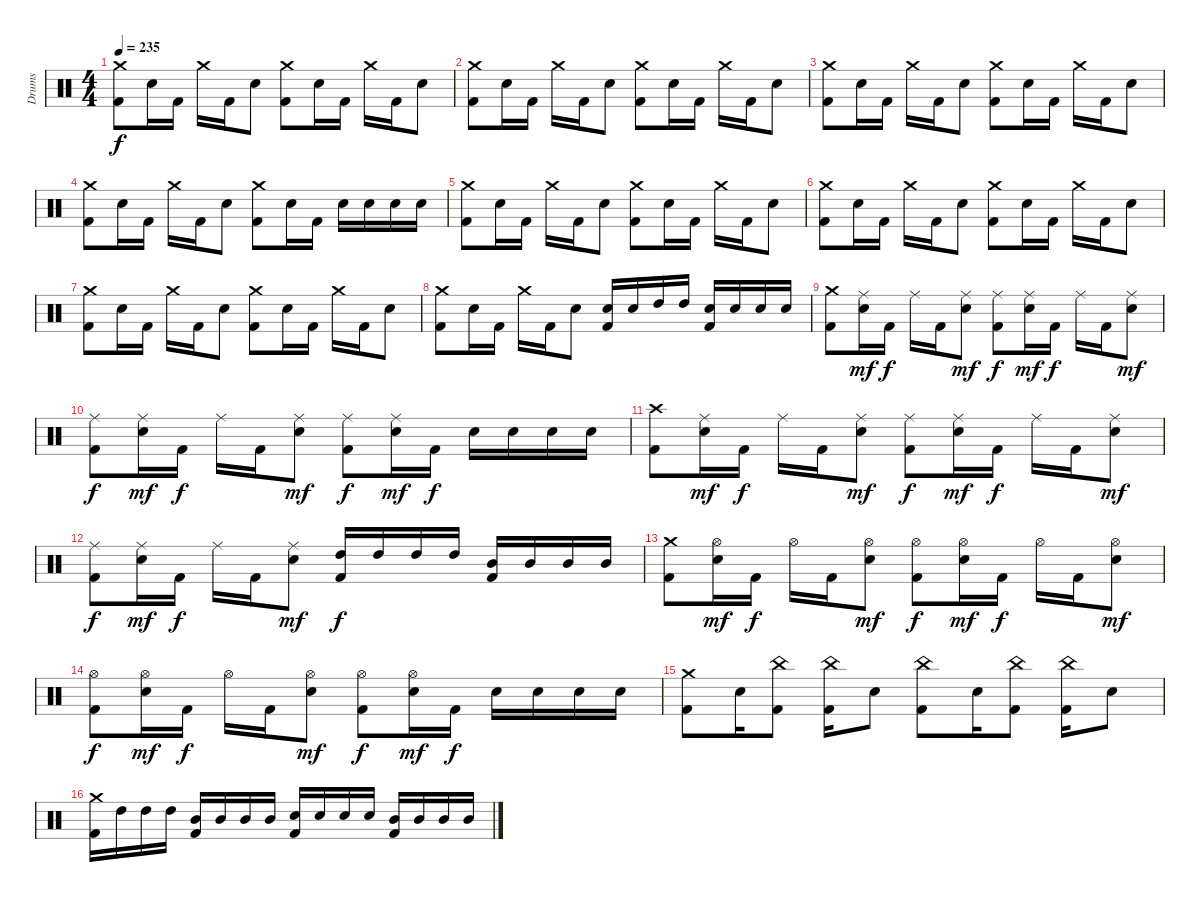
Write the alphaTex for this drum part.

\track ("Drums" "Drums") {instrument percussion}
\staff {score}
\articulation defaults
\ts (4 4)
\tempo 235
\clef neutral
\ks c
("Crash medium (hit)" "Kick (hit) 2").8{dy f} "Electric Snare (hit)".16 "Kick (hit) 2".16 "Crash medium (hit)".16 "Kick (hit) 2".16 "Electric Snare (hit)".8 ("Crash medium (hit)" "Kick (hit) 2").8 "Electric Snare (hit)".16 "Kick (hit) 2".16 "Crash medium (hit)".16 "Kick (hit) 2".16 "Electric Snare (hit)".8 |
("Crash medium (hit)" "Kick (hit) 2").8 "Electric Snare (hit)".16 "Kick (hit) 2".16 "Crash medium (hit)".16 "Kick (hit) 2".16 "Electric Snare (hit)".8 ("Crash medium (hit)" "Kick (hit) 2").8 "Electric Snare (hit)".16 "Kick (hit) 2".16 "Crash medium (hit)".16 "Kick (hit) 2".16 "Electric Snare (hit)".8 |
("Crash medium (hit)" "Kick (hit) 2").8 "Electric Snare (hit)".16 "Kick (hit) 2".16 "Crash medium (hit)".16 "Kick (hit) 2".16 "Electric Snare (hit)".8 ("Crash medium (hit)" "Kick (hit) 2").8 "Electric Snare (hit)".16 "Kick (hit) 2".16 "Crash medium (hit)".16 "Kick (hit) 2".16 "Electric Snare (hit)".8 |
("Crash medium (hit)" "Kick (hit) 2").8 "Electric Snare (hit)".16 "Kick (hit) 2".16 "Crash medium (hit)".16 "Kick (hit) 2".16 "Electric Snare (hit)".8 ("Crash medium (hit)" "Kick (hit) 2").8 "Electric Snare (hit)".16 "Kick (hit) 2".16 "Electric Snare (hit)".16 "Electric Snare (hit)".16 "Electric Snare (hit)".16 "Electric Snare (hit)".16 |
("Crash medium (hit)" "Kick (hit) 2").8 "Electric Snare (hit)".16 "Kick (hit) 2".16 "Crash medium (hit)".16 "Kick (hit) 2".16 "Electric Snare (hit)".8 ("Crash medium (hit)" "Kick (hit) 2").8 "Electric Snare (hit)".16 "Kick (hit) 2".16 "Crash medium (hit)".16 "Kick (hit) 2".16 "Electric Snare (hit)".8 |
("Crash medium (hit)" "Kick (hit) 2").8 "Electric Snare (hit)".16 "Kick (hit) 2".16 "Crash medium (hit)".16 "Kick (hit) 2".16 "Electric Snare (hit)".8 ("Crash medium (hit)" "Kick (hit) 2").8 "Electric Snare (hit)".16 "Kick (hit) 2".16 "Crash medium (hit)".16 "Kick (hit) 2".16 "Electric Snare (hit)".8 |
("Crash medium (hit)" "Kick (hit) 2").8 "Electric Snare (hit)".16 "Kick (hit) 2".16 "Crash medium (hit)".16 "Kick (hit) 2".16 "Electric Snare (hit)".8 ("Crash medium (hit)" "Kick (hit) 2").8 "Electric Snare (hit)".16 "Kick (hit) 2".16 "Crash medium (hit)".16 "Kick (hit) 2".16 "Electric Snare (hit)".8 |
("Crash medium (hit)" "Kick (hit) 2").8 "Electric Snare (hit)".16 "Kick (hit) 2".16 "Crash medium (hit)".16 "Kick (hit) 2".16 "Electric Snare (hit)".8 ("Electric Snare (hit)" "Kick (hit) 2").16 "Electric Snare (hit)".16 "High Tom (hit)".16 "High Tom (hit)".16 ("Electric Snare (hit)" "Kick (hit) 2").16 "Electric Snare (hit)".16 "Electric Snare (hit)".16 "Electric Snare (hit)".16 |
("Crash medium (hit)" "Kick (hit) 2").8 ("Ride (middle)" "Electric Snare (hit)").16{dy mf} "Kick (hit) 2".16{dy f} "Ride (middle)".16 "Kick (hit) 2".16 ("Ride (middle)" "Electric Snare (hit)").8{dy mf} ("Ride (middle)" "Kick (hit) 2").8{dy f} ("Ride (middle)" "Electric Snare (hit)").16{dy mf} "Kick (hit) 2".16{dy f} "Ride (middle)".16 "Kick (hit) 2".16 ("Ride (middle)" "Electric Snare (hit)").8{dy mf} |
("Ride (middle)" "Kick (hit) 2").8{dy f} ("Ride (middle)" "Electric Snare (hit)").16{dy mf} "Kick (hit) 2".16{dy f} "Ride (middle)".16 "Kick (hit) 2".16 ("Ride (middle)" "Electric Snare (hit)").8{dy mf} ("Ride (middle)" "Kick (hit) 2").8{dy f} ("Ride (middle)" "Electric Snare (hit)").16{dy mf} "Kick (hit) 2".16{dy f} "Electric Snare (hit)".16 "Electric Snare (hit)".16 "Electric Snare (hit)".16 "Electric Snare (hit)".16 |
("Crash high (hit)" "Kick (hit) 2").8 ("Ride (middle)" "Electric Snare (hit)").16{dy mf} "Kick (hit) 2".16{dy f} "Ride (middle)".16 "Kick (hit) 2".16 ("Ride (middle)" "Electric Snare (hit)").8{dy mf} ("Ride (middle)" "Kick (hit) 2").8{dy f} ("Ride (middle)" "Electric Snare (hit)").16{dy mf} "Kick (hit) 2".16{dy f} "Ride (middle)".16 "Kick (hit) 2".16 ("Ride (middle)" "Electric Snare (hit)").8{dy mf} |
("Ride (middle)" "Kick (hit) 2").8{dy f} ("Ride (middle)" "Electric Snare (hit)").16{dy mf} "Kick (hit) 2".16{dy f} "Ride (middle)".16 "Kick (hit) 2".16 ("Ride (middle)" "Electric Snare (hit)").8{dy mf} ("High Tom (hit)" "Kick (hit) 2").16{dy f} "High Tom (hit)".16 "High Tom (hit)".16 "High Tom (hit)".16 ("Mid Tom (hit)" "Kick (hit) 2").16 "Mid Tom (hit)".16 "Mid Tom (hit)".16 "Mid Tom (hit)".16 |
("Crash medium (hit)" "Kick (hit) 2").8 ("Hi-Hat (open)" "Electric Snare (hit)").16{dy mf} "Kick (hit) 2".16{dy f} "Hi-Hat (open)".16 "Kick (hit) 2".16 ("Hi-Hat (open)" "Electric Snare (hit)").8{dy mf} ("Hi-Hat (open)" "Kick (hit) 2").8{dy f} ("Hi-Hat (open)" "Electric Snare (hit)").16{dy mf} "Kick (hit) 2".16{dy f} "Hi-Hat (open)".16 "Kick (hit) 2".16 ("Hi-Hat (open)" "Electric Snare (hit)").8{dy mf} |
("Hi-Hat (open)" "Kick (hit) 2").8{dy f} ("Hi-Hat (open)" "Electric Snare (hit)").16{dy mf} "Kick (hit) 2".16{dy f} "Hi-Hat (open)".16 "Kick (hit) 2".16 ("Hi-Hat (open)" "Electric Snare (hit)").8{dy mf} ("Hi-Hat (open)" "Kick (hit) 2").8{dy f} ("Hi-Hat (open)" "Electric Snare (hit)").16{dy mf} "Kick (hit) 2".16{dy f} "Electric Snare (hit)".16 "Electric Snare (hit)".16 "Electric Snare (hit)".16 "Electric Snare (hit)".16 |
("Crash medium (hit)" "Kick (hit) 2").8 "Electric Snare (hit)".16 ("China (hit)" "Kick (hit) 2").8 ("China (hit)" "Kick (hit) 2").16 "Electric Snare (hit)".8 ("China (hit)" "Kick (hit) 2").8 "Electric Snare (hit)".16 ("China (hit)" "Kick (hit) 2").8 ("China (hit)" "Kick (hit) 2").16 "Electric Snare (hit)".8 |
("Crash medium (hit)" "Kick (hit) 2").16 "High Tom (hit)".16 "High Tom (hit)".16 "High Tom (hit)".16 ("Mid Tom (hit)" "Kick (hit) 2").16 "Mid Tom (hit)".16 "Mid Tom (hit)".16 "Mid Tom (hit)".16 ("Electric Snare (hit)" "Kick (hit) 2").16 "Electric Snare (hit)".16 "Electric Snare (hit)".16 "Electric Snare (hit)".16 ("Mid Tom (hit)" "Kick (hit) 2").16 "Mid Tom (hit)".16 "Mid Tom (hit)".16 "Mid Tom (hit)".16
